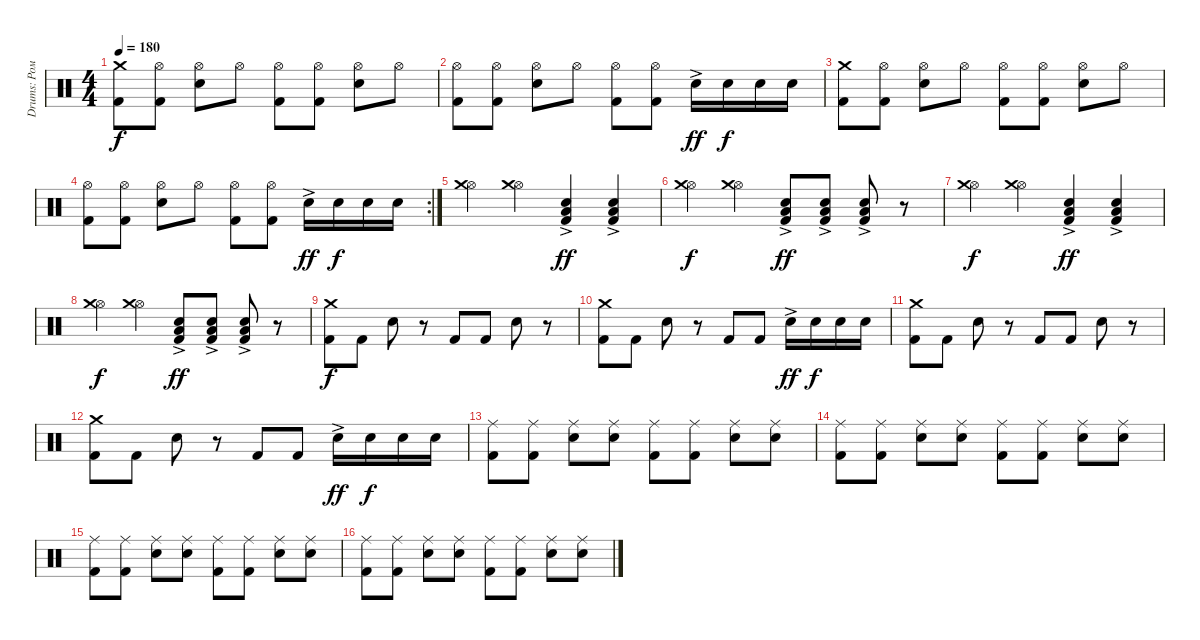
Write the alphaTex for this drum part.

\track ("Drums: Рома" "Drums: Ром") {instrument percussion}
\staff {score}
\articulation defaults
\ts (4 4)
\tempo 180
\clef neutral
\ks c
("Crash medium (hit)" "Kick (hit) 2").8{dy f} ("Hi-Hat (open)" "Kick (hit) 2").8 ("Hi-Hat (open)" "Snare (hit) 2").8 "Hi-Hat (open)".8 ("Hi-Hat (open)" "Kick (hit) 2").8 ("Hi-Hat (open)" "Kick (hit) 2").8 ("Hi-Hat (open)" "Snare (hit) 2").8 "Hi-Hat (open)".8 |
("Hi-Hat (open)" "Kick (hit) 2").8 ("Hi-Hat (open)" "Kick (hit) 2").8 ("Hi-Hat (open)" "Snare (hit) 2").8 "Hi-Hat (open)".8 ("Hi-Hat (open)" "Kick (hit) 2").8 ("Hi-Hat (open)" "Kick (hit) 2").8 "Snare (hit) 2"{ac}.16{dy ff} "Snare (hit) 2".16{dy f} "Snare (hit) 2".16 "Snare (hit) 2".16 |
("Crash medium (hit)" "Kick (hit) 2").8 ("Hi-Hat (open)" "Kick (hit) 2").8 ("Hi-Hat (open)" "Snare (hit) 2").8 "Hi-Hat (open)".8 ("Hi-Hat (open)" "Kick (hit) 2").8 ("Hi-Hat (open)" "Kick (hit) 2").8 ("Hi-Hat (open)" "Snare (hit) 2").8 "Hi-Hat (open)".8 |
\rc 2
("Hi-Hat (open)" "Kick (hit) 2").8 ("Hi-Hat (open)" "Kick (hit) 2").8 ("Hi-Hat (open)" "Snare (hit) 2").8 "Hi-Hat (open)".8 ("Hi-Hat (open)" "Kick (hit) 2").8 ("Hi-Hat (open)" "Kick (hit) 2").8 "Snare (hit) 2"{ac}.16{dy ff} "Snare (hit) 2".16{dy f} "Snare (hit) 2".16 "Snare (hit) 2".16 |
("Hi-Hat (open)" "Crash medium (hit)").4 ("Hi-Hat (open)" "Crash medium (hit)").4 ("Snare (hit) 2"{ac} "Low Tom (hit)" "Kick (hit) 2").4{dy ff} ("Snare (hit) 2"{ac} "Low Tom (hit)" "Kick (hit) 2").4 |
("Hi-Hat (open)" "Crash medium (hit)").4{dy f} ("Hi-Hat (open)" "Crash medium (hit)").4 ("Snare (hit) 2"{ac} "Low Tom (hit)" "Kick (hit) 2").8{dy ff} ("Snare (hit) 2"{ac} "Low Tom (hit)" "Kick (hit) 2").8 ("Snare (hit) 2"{ac} "Low Tom (hit)" "Kick (hit) 2").8 r.8 |
("Hi-Hat (open)" "Crash medium (hit)").4{dy f} ("Hi-Hat (open)" "Crash medium (hit)").4 ("Snare (hit) 2"{ac} "Low Tom (hit)" "Kick (hit) 2").4{dy ff} ("Snare (hit) 2"{ac} "Low Tom (hit)" "Kick (hit) 2").4 |
("Hi-Hat (open)" "Crash medium (hit)").4{dy f} ("Hi-Hat (open)" "Crash medium (hit)").4 ("Snare (hit) 2"{ac} "Low Tom (hit)" "Kick (hit) 2").8{dy ff} ("Snare (hit) 2"{ac} "Low Tom (hit)" "Kick (hit) 2").8 ("Snare (hit) 2"{ac} "Low Tom (hit)" "Kick (hit) 2").8 r.8 |
("Crash medium (hit)" "Kick (hit) 2").8{dy f} "Kick (hit) 2".8 "Snare (hit) 2".8 r.8 "Kick (hit) 2".8 "Kick (hit) 2".8 "Snare (hit) 2".8 r.8 |
("Crash medium (hit)" "Kick (hit) 2").8 "Kick (hit) 2".8 "Snare (hit) 2".8 r.8 "Kick (hit) 2".8 "Kick (hit) 2".8 "Snare (hit) 2"{ac}.16{dy ff} "Snare (hit) 2".16{dy f} "Snare (hit) 2".16 "Snare (hit) 2".16 |
("Crash medium (hit)" "Kick (hit) 2").8 "Kick (hit) 2".8 "Snare (hit) 2".8 r.8 "Kick (hit) 2".8 "Kick (hit) 2".8 "Snare (hit) 2".8 r.8 |
("Crash medium (hit)" "Kick (hit) 2").8 "Kick (hit) 2".8 "Snare (hit) 2".8 r.8 "Kick (hit) 2".8 "Kick (hit) 2".8 "Snare (hit) 2"{ac}.16{dy ff} "Snare (hit) 2".16{dy f} "Snare (hit) 2".16 "Snare (hit) 2".16 |
("Ride (middle)" "Kick (hit) 2").8 ("Ride (middle)" "Kick (hit) 2").8 ("Ride (middle)" "Snare (hit) 2").8 ("Ride (middle)" "Snare (hit) 2").8 ("Ride (middle)" "Kick (hit) 2").8 ("Ride (middle)" "Kick (hit) 2").8 ("Ride (middle)" "Snare (hit) 2").8 ("Ride (middle)" "Snare (hit) 2").8 |
("Ride (middle)" "Kick (hit) 2").8 ("Ride (middle)" "Kick (hit) 2").8 ("Ride (middle)" "Snare (hit) 2").8 ("Ride (middle)" "Snare (hit) 2").8 ("Ride (middle)" "Kick (hit) 2").8 ("Ride (middle)" "Kick (hit) 2").8 ("Ride (middle)" "Snare (hit) 2").8 ("Ride (middle)" "Snare (hit) 2").8 |
("Ride (middle)" "Kick (hit) 2").8 ("Ride (middle)" "Kick (hit) 2").8 ("Ride (middle)" "Snare (hit) 2").8 ("Ride (middle)" "Snare (hit) 2").8 ("Ride (middle)" "Kick (hit) 2").8 ("Ride (middle)" "Kick (hit) 2").8 ("Ride (middle)" "Snare (hit) 2").8 ("Ride (middle)" "Snare (hit) 2").8 |
("Ride (middle)" "Kick (hit) 2").8 ("Ride (middle)" "Kick (hit) 2").8 ("Ride (middle)" "Snare (hit) 2").8 ("Ride (middle)" "Snare (hit) 2").8 ("Ride (middle)" "Kick (hit) 2").8 ("Ride (middle)" "Kick (hit) 2").8 ("Ride (middle)" "Snare (hit) 2").8 ("Ride (middle)" "Snare (hit) 2").8
